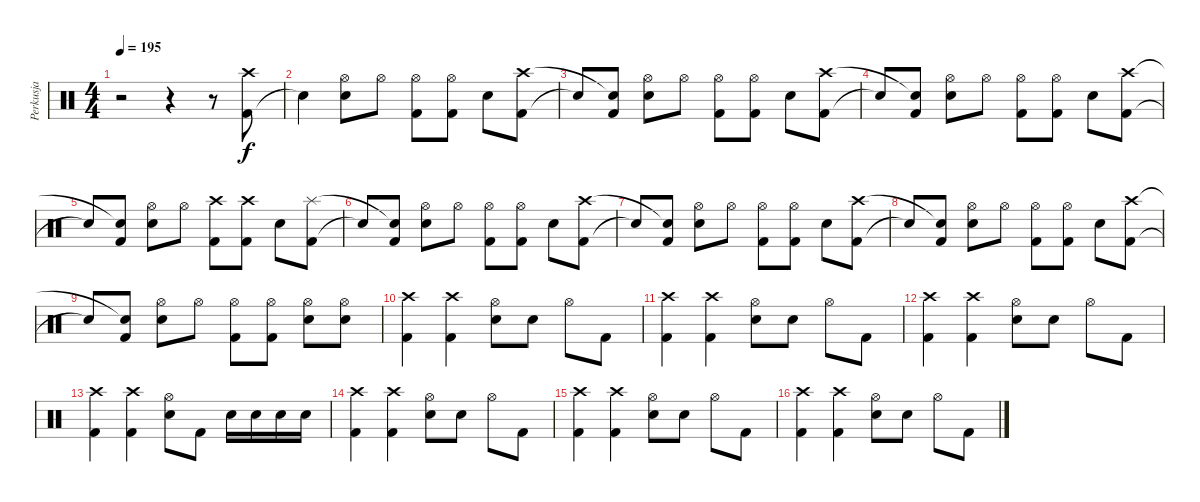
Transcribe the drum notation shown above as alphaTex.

\track ("Perkusja" "Perkusja") {instrument percussion}
\staff {score}
\articulation defaults
\ts (4 4)
\tempo 195
\clef neutral
\ks c
r.2{dy f} r.4 r.8 ("Kick (hit) 2" "Crash high (hit)").8 |
"Snare (hit)"{t}.4 ("Electric Snare (hit)" "Hi-Hat (open)").8 "Hi-Hat (open)".8 ("Kick (hit) 2" "Hi-Hat (open)").8 ("Kick (hit) 2" "Hi-Hat (open)").8 "Electric Snare (hit)".8 ("Kick (hit) 2" "Crash high (hit)").8 |
"Snare (hit)"{t}.8 ("Kick (hit) 2" "Snare (hit)"{t}).8 ("Electric Snare (hit)" "Hi-Hat (open)").8 "Hi-Hat (open)".8 ("Kick (hit) 2" "Hi-Hat (open)").8 ("Kick (hit) 2" "Hi-Hat (open)").8 "Electric Snare (hit)".8 ("Kick (hit) 2" "Crash high (hit)").8 |
"Snare (hit)"{t}.8 ("Kick (hit) 2" "Snare (hit)"{t}).8 ("Electric Snare (hit)" "Hi-Hat (open)").8 "Hi-Hat (open)".8 ("Kick (hit) 2" "Hi-Hat (open)").8 ("Kick (hit) 2" "Hi-Hat (open)").8 "Electric Snare (hit)".8 ("Kick (hit) 2" "Crash high (hit)").8 |
"Snare (hit)"{t}.8 ("Kick (hit) 2" "Snare (hit)"{t}).8 ("Electric Snare (hit)" "Hi-Hat (open)").8 "Hi-Hat (open)".8 ("Kick (hit) 2" "Crash high (hit)").8 ("Kick (hit) 2" "Crash high (hit)").8 "Electric Snare (hit)".8 ("Kick (hit) 2" "Splash (hit)").8 |
"Snare (hit)"{t}.8 ("Kick (hit) 2" "Snare (hit)"{t}).8 ("Electric Snare (hit)" "Hi-Hat (open)").8 "Hi-Hat (open)".8 ("Kick (hit) 2" "Hi-Hat (open)").8 ("Kick (hit) 2" "Hi-Hat (open)").8 "Electric Snare (hit)".8 ("Kick (hit) 2" "Crash high (hit)").8 |
"Snare (hit)"{t}.8 ("Kick (hit) 2" "Snare (hit)"{t}).8 ("Electric Snare (hit)" "Hi-Hat (open)").8 "Hi-Hat (open)".8 ("Kick (hit) 2" "Hi-Hat (open)").8 ("Kick (hit) 2" "Hi-Hat (open)").8 "Electric Snare (hit)".8 ("Kick (hit) 2" "Crash high (hit)").8 |
"Snare (hit)"{t}.8 ("Kick (hit) 2" "Snare (hit)"{t}).8 ("Electric Snare (hit)" "Hi-Hat (open)").8 "Hi-Hat (open)".8 ("Kick (hit) 2" "Hi-Hat (open)").8 ("Kick (hit) 2" "Hi-Hat (open)").8 "Electric Snare (hit)".8 ("Kick (hit) 2" "Crash high (hit)").8 |
"Snare (hit)"{t}.8 ("Kick (hit) 2" "Snare (hit)"{t}).8 ("Electric Snare (hit)" "Hi-Hat (open)").8 "Hi-Hat (open)".8 ("Kick (hit) 2" "Hi-Hat (open)").8 ("Kick (hit) 2" "Hi-Hat (open)").8 ("Electric Snare (hit)" "Hi-Hat (open)").8 ("Electric Snare (hit)" "Hi-Hat (open)").8 |
("Kick (hit) 2" "Crash high (hit)").4 ("Kick (hit) 2" "Crash high (hit)").4 ("Electric Snare (hit)" "Hi-Hat (open)").8 "Electric Snare (hit)".8 "Hi-Hat (open)".8 "Kick (hit) 2".8 |
("Kick (hit) 2" "Crash high (hit)").4 ("Kick (hit) 2" "Crash high (hit)").4 ("Electric Snare (hit)" "Hi-Hat (open)").8 "Electric Snare (hit)".8 "Hi-Hat (open)".8 "Kick (hit) 2".8 |
("Kick (hit) 2" "Crash high (hit)").4 ("Kick (hit) 2" "Crash high (hit)").4 ("Electric Snare (hit)" "Hi-Hat (open)").8 "Electric Snare (hit)".8 "Hi-Hat (open)".8 "Kick (hit) 2".8 |
("Kick (hit) 2" "Crash high (hit)").4 ("Kick (hit) 2" "Crash high (hit)").4 ("Electric Snare (hit)" "Hi-Hat (open)").8 "Kick (hit) 2".8 "Electric Snare (hit)".16 "Electric Snare (hit)".16 "Electric Snare (hit)".16 "Electric Snare (hit)".16 |
("Kick (hit) 2" "Crash high (hit)").4 ("Kick (hit) 2" "Crash high (hit)").4 ("Electric Snare (hit)" "Hi-Hat (open)").8 "Electric Snare (hit)".8 "Hi-Hat (open)".8 "Kick (hit) 2".8 |
("Kick (hit) 2" "Crash high (hit)").4 ("Kick (hit) 2" "Crash high (hit)").4 ("Electric Snare (hit)" "Hi-Hat (open)").8 "Electric Snare (hit)".8 "Hi-Hat (open)".8 "Kick (hit) 2".8 |
("Kick (hit) 2" "Crash high (hit)").4 ("Kick (hit) 2" "Crash high (hit)").4 ("Electric Snare (hit)" "Hi-Hat (open)").8 "Electric Snare (hit)".8 "Hi-Hat (open)".8 "Kick (hit) 2".8
